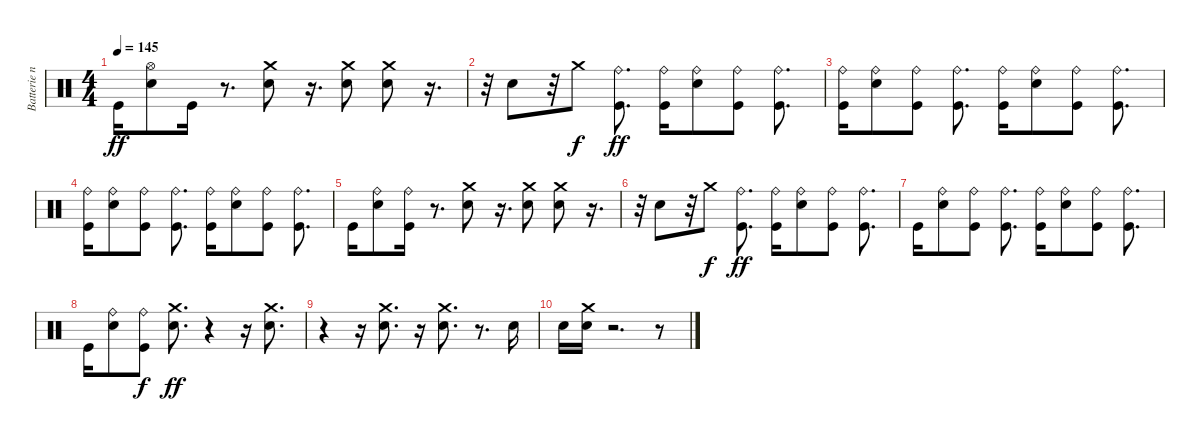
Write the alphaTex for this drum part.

\track ("Batterie n°3" "Batterie n") {instrument percussion}
\staff {score}
\articulation defaults
\ts (4 4)
\tempo 145
\clef neutral
\ks c "Kick (hit)".16{dy ff}
("Snare (hit) 2" "Hi-Hat (open)").8 "Kick (hit)".16 r.8{d} ("Snare (hit) 2" "Crash medium (hit)").8 r.16{d} ("Snare (hit) 2" "Crash medium (hit)").8 ("Snare (hit) 2" "Crash medium (hit)").8 r.16{d} |
r.32 "Snare (hit) 2".8 r.32 "Crash medium (hit)".8{dy f} ("Kick (hit)" "Ride (bell)").8{d dy ff} ("Kick (hit)" "Ride (bell)").16 ("Snare (hit) 2" "Ride (bell)").8 ("Kick (hit)" "Ride (bell)").8 ("Kick (hit)" "Ride (bell)").8{d} |
("Kick (hit)" "Ride (bell)").16 ("Snare (hit) 2" "Ride (bell)").8 ("Kick (hit)" "Ride (bell)").8 ("Kick (hit)" "Ride (bell)").8{d} ("Kick (hit)" "Ride (bell)").16 ("Snare (hit) 2" "Ride (bell)").8 ("Kick (hit)" "Ride (bell)").8 ("Kick (hit)" "Ride (bell)").8{d} |
("Kick (hit)" "Ride (bell)").16 ("Snare (hit) 2" "Ride (bell)").8 ("Kick (hit)" "Ride (bell)").8 ("Kick (hit)" "Ride (bell)").8{d} ("Kick (hit)" "Ride (bell)").16 ("Snare (hit) 2" "Ride (bell)").8 ("Kick (hit)" "Ride (bell)").8 ("Kick (hit)" "Ride (bell)").8{d} |
"Kick (hit)".16 ("Snare (hit) 2" "Ride (bell)").8 ("Kick (hit)" "Ride (bell)").16 r.8{d} ("Electric Snare (hit)" "Crash medium (hit)").8 r.16{d} ("Electric Snare (hit)" "Crash medium (hit)").8 ("Electric Snare (hit)" "Crash medium (hit)").8 r.16{d} |
r.32 "Snare (hit) 2".8 r.32 "Crash medium (hit)".8{dy f} ("Kick (hit)" "Ride (bell)").8{d dy ff} ("Kick (hit)" "Ride (bell)").16 ("Snare (hit) 2" "Ride (bell)").8 ("Kick (hit)" "Ride (bell)").8 ("Kick (hit)" "Ride (bell)").8{d} |
"Kick (hit)".16 ("Snare (hit) 2" "Ride (bell)").8 ("Kick (hit)" "Ride (bell)").8 ("Kick (hit)" "Ride (bell)").8{d} ("Kick (hit)" "Ride (bell)").16 ("Snare (hit) 2" "Ride (bell)").8 ("Kick (hit)" "Ride (bell)").8 ("Kick (hit)" "Ride (bell)").8{d} |
"Kick (hit)".16 ("Snare (hit) 2" "Ride (bell)").8 ("Kick (hit)" "Ride (bell)").8{dy f} ("Electric Snare (hit)" "Crash medium (hit)").8{d dy ff} r.4 r.16 ("Electric Snare (hit)" "Crash medium (hit)").8{d} |
r.4 r.16 ("Electric Snare (hit)" "Crash medium (hit)").8{d} r.16 ("Electric Snare (hit)" "Crash medium (hit)").8{d} r.8{d} "Electric Snare (hit)".16 |
"Electric Snare (hit)".16 ("Electric Snare (hit)" "Crash medium (hit)").16 r.2{d} r.8
